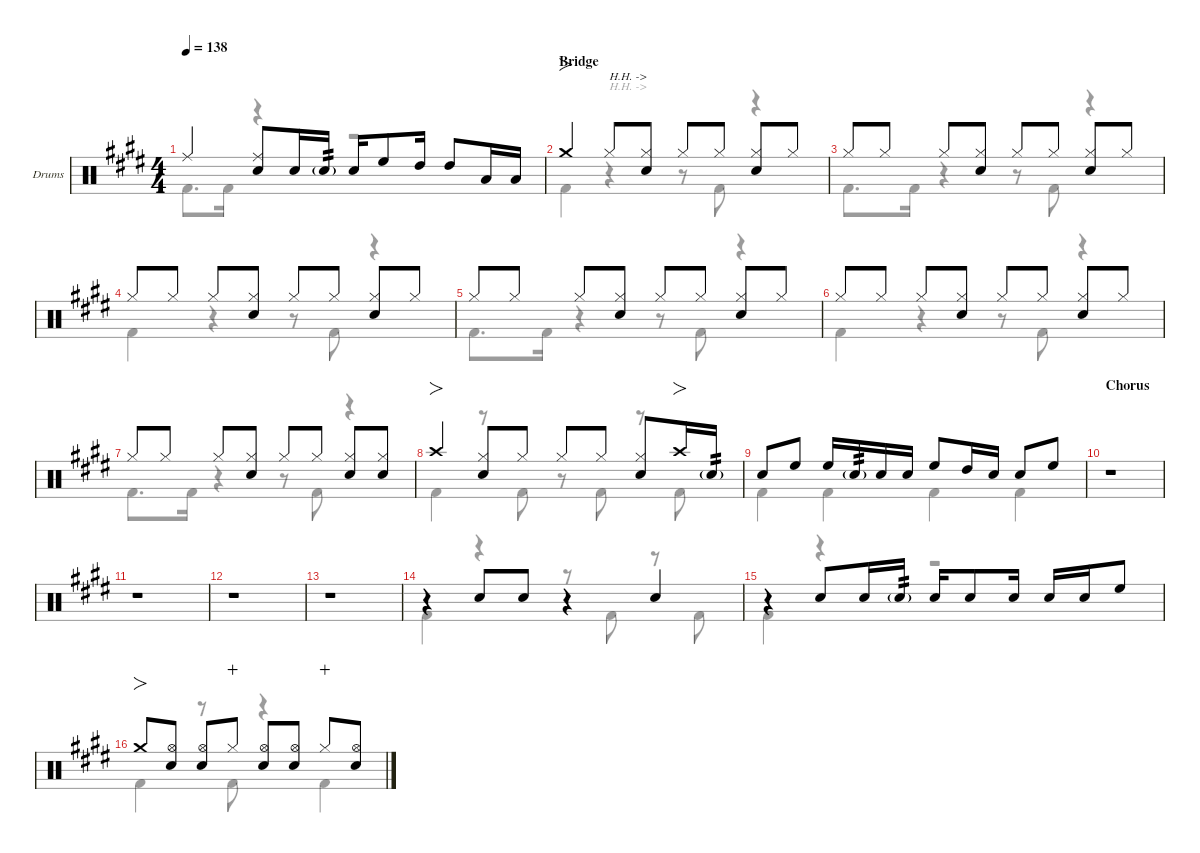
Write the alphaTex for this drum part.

\defaultSystemsLayout 4
\hideDynamics
\bracketExtendMode nobrackets
\firstSystemTrackNameOrientation horizontal
\track ("Drums" "Drums") {defaultSystemsLayout 4 instrument percussion}
\staff {score}
\articulation defaults
\voice
\ts (4 4)
\tempo 138
\clef neutral
\scale
0.244132
\ks c#minor "Ride (middle)"{acc forcenatural}.4{dy f beam Up}
("Ride (middle)"{acc forcenatural} "Snare (hit) 2"{acc forcenatural}).8{beam Up} "Snare (hit) 2"{acc forcenatural}.16{beam Up} "Snare (hit) 2"{g acc forcenatural}.16{tp 2 dy mp beam Up} "Snare (hit) 2"{acc forcenatural}.16{dy f beam Up} "High Floor Tom (hit)"{acc forcenatural}.8{dy mf beam Up} "High Tom (hit)"{acc forcenatural}.16{beam Up beam split} "High Tom (hit)"{acc forcenatural}.8{beam Up} "Low Tom (hit)"{acc forcenatural}.16{beam Up} "Low Tom (hit)"{acc forcenatural}.16{beam Up} |
\section ("" "Bridge")
\scale
0.267605 "Crash medium (hit)"{acc forcenatural}.4{fo dy f beam Up} "Hi-Hat (closed)"{acc forcenatural}.8{txt "H.H. ->" beam Up} ("Hi-Hat (closed)"{acc forcenatural} "Snare (hit) 2"{acc forcenatural}).8{beam Up} "Hi-Hat (closed)"{acc forcenatural}.8{beam Up} "Hi-Hat (closed)"{acc forcenatural}.8{dy mp beam Up} ("Hi-Hat (closed)"{acc forcenatural} "Snare (hit) 2"{acc forcenatural}).8{dy f beam Up} "Hi-Hat (closed)"{acc forcenatural}.8{dy mp beam Up} |
\scale
0.244132 "Hi-Hat (closed)"{acc forcenatural}.8{dy f beam Up} "Hi-Hat (closed)"{acc forcenatural}.8{dy mp beam Up} "Hi-Hat (closed)"{acc forcenatural}.8{dy f beam Up} ("Hi-Hat (closed)"{acc forcenatural} "Snare (hit) 2"{acc forcenatural}).8{beam Up} "Hi-Hat (closed)"{acc forcenatural}.8{beam Up} "Hi-Hat (closed)"{acc forcenatural}.8{dy mp beam Up} ("Hi-Hat (closed)"{acc forcenatural} "Snare (hit) 2"{acc forcenatural}).8{dy f beam Up} "Hi-Hat (closed)"{acc forcenatural}.8{dy mp beam Up} |
\scale
0.244132 "Hi-Hat (closed)"{acc forcenatural}.8{dy f beam Up} "Hi-Hat (closed)"{acc forcenatural}.8{dy mp beam Up} "Hi-Hat (closed)"{acc forcenatural}.8{dy f beam Up} ("Hi-Hat (closed)"{acc forcenatural} "Snare (hit) 2"{acc forcenatural}).8{beam Up} "Hi-Hat (closed)"{acc forcenatural}.8{beam Up} "Hi-Hat (closed)"{acc forcenatural}.8{dy mp beam Up} ("Hi-Hat (closed)"{acc forcenatural} "Snare (hit) 2"{acc forcenatural}).8{dy f beam Up} "Hi-Hat (closed)"{acc forcenatural}.8{dy mp beam Up} |
\scale
0.244132 "Hi-Hat (closed)"{acc forcenatural}.8{dy f beam Up} "Hi-Hat (closed)"{acc forcenatural}.8{dy mp beam Up} "Hi-Hat (closed)"{acc forcenatural}.8{dy f beam Up} ("Hi-Hat (closed)"{acc forcenatural} "Snare (hit) 2"{acc forcenatural}).8{beam Up} "Hi-Hat (closed)"{acc forcenatural}.8{beam Up} "Hi-Hat (closed)"{acc forcenatural}.8{dy mp beam Up} ("Hi-Hat (closed)"{acc forcenatural} "Snare (hit) 2"{acc forcenatural}).8{dy f beam Up} "Hi-Hat (closed)"{acc forcenatural}.8{dy mp beam Up} |
\scale
0.267605 "Hi-Hat (closed)"{acc forcenatural}.8{dy f beam Up} "Hi-Hat (closed)"{acc forcenatural}.8{dy mp beam Up} "Hi-Hat (closed)"{acc forcenatural}.8{dy f beam Up} ("Hi-Hat (closed)"{acc forcenatural} "Snare (hit) 2"{acc forcenatural}).8{beam Up} "Hi-Hat (closed)"{acc forcenatural}.8{beam Up} "Hi-Hat (closed)"{acc forcenatural}.8{dy mp beam Up} ("Hi-Hat (closed)"{acc forcenatural} "Snare (hit) 2"{acc forcenatural}).8{dy f beam Up} "Hi-Hat (closed)"{acc forcenatural}.8{dy mp beam Up} |
\scale
0.244132 "Hi-Hat (closed)"{acc forcenatural}.8{dy f beam Up} "Hi-Hat (closed)"{acc forcenatural}.8{dy mp beam Up} "Hi-Hat (closed)"{acc forcenatural}.8{dy f beam Up} ("Hi-Hat (closed)"{acc forcenatural} "Snare (hit) 2"{acc forcenatural}).8{beam Up} "Hi-Hat (closed)"{acc forcenatural}.8{beam Up} "Hi-Hat (closed)"{acc forcenatural}.8{dy mp beam Up} ("Hi-Hat (closed)"{acc forcenatural} "Snare (hit) 2"{acc forcenatural}).8{dy f beam Up} ("Hi-Hat (closed)"{acc forcenatural} "Snare (hit) 2"{acc forcenatural}).8{beam Up} |
\scale
0.244132 "Crash high (hit)"{acc forcenatural}.4{fo beam Up} ("Hi-Hat (closed)"{acc forcenatural} "Snare (hit) 2"{acc forcenatural}).8{beam Up} "Hi-Hat (closed)"{acc forcenatural}.8{dy mp beam Up} "Hi-Hat (closed)"{acc forcenatural}.8{dy f beam Up} "Hi-Hat (closed)"{acc forcenatural}.8{dy mp beam Up beam split} ("Hi-Hat (closed)"{acc forcenatural} "Snare (hit) 2"{acc forcenatural}).8{dy f beam Up} "Crash high (hit)"{acc forcenatural}.16{fo beam Up} "Snare (hit) 2"{g acc forcenatural}.16{tp 2 dy mp beam Up} |
\scale
0.244132 "Snare (hit) 2"{acc forcenatural}.8{dy f beam Up} "High Floor Tom (hit)"{acc forcenatural}.8{beam Up beam split} "High Floor Tom (hit)"{acc forcenatural}.16{beam Up} "Snare (hit) 2"{g acc forcenatural}.16{tp 2 dy mp beam Up} "Snare (hit) 2"{acc forcenatural}.16{dy f beam Up} "Snare (hit) 2"{acc forcenatural}.16{dy mf beam Up} "High Floor Tom (hit)"{acc forcenatural}.8{dy f beam Up} "High Tom (hit)"{acc forcenatural}.16{beam Up} "Snare (hit) 2"{acc forcenatural}.16{beam Up beam split} "Snare (hit) 2"{acc forcenatural}.8{dy mf beam Up} "High Floor Tom (hit)"{acc forcenatural}.8{beam Up} |
\section ("" "Chorus")
\scale
0.267605 r.1{beam Down} |
\scale
0.244132 r.1{beam Down} |
\scale
0.244132 r.1{beam Down} |
\scale
0.244132 r.1{beam Down} |
\scale
0.267605 r.4{beam Up} "Snare (hit) 2"{acc forcenatural}.8{dy f beam Up} "Snare (hit) 2"{acc forcenatural}.8{beam Up} r.4{beam Up} "Snare (hit) 2"{acc forcenatural}.4{beam Up} |
\scale
0.244132 r.4{beam Up} "Snare (hit) 2"{acc forcenatural}.8{beam Up} "Snare (hit) 2"{acc forcenatural}.16{beam Up} "Snare (hit) 2"{g acc forcenatural}.16{tp 2 dy mf beam Up} "Snare (hit) 2"{acc forcenatural}.16{dy f beam Up} "Snare (hit) 2"{acc forcenatural}.8{beam Up} "Snare (hit) 2"{acc forcenatural}.16{dy mf beam Up beam split} "Snare (hit) 2"{acc forcenatural}.16{dy f beam Up} "Snare (hit) 2"{acc forcenatural}.16{dy mf beam Up} "High Floor Tom (hit)"{acc forcenatural}.8{dy f beam Up} |
\scale
0.244132 "Crash medium (hit)"{acc forcenatural}.8{fo beam Up} ("Snare (hit) 2"{acc forcenatural} "Hi-Hat (open)"{acc forcenatural}).8{beam Up} ("Snare (hit) 2"{acc forcenatural} "Hi-Hat (open)"{acc forcenatural}).8{beam Up} "Hi-Hat (closed)"{acc forcenatural}.8{dy mp wahc beam Up} ("Snare (hit) 2"{acc forcenatural} "Hi-Hat (open)"{acc forcenatural}).8{dy f beam Up} ("Snare (hit) 2"{acc forcenatural} "Hi-Hat (open)"{acc forcenatural}).8{beam Up} "Hi-Hat (closed)"{acc forcenatural}.8{dy mp wahc beam Up} ("Snare (hit) 2"{acc forcenatural} "Hi-Hat (open)"{acc forcenatural}).8{dy f beam Up}
\voice
\clef neutral
\ottava regular
\simile none
\scale
0.244132
\ks c#minor "Kick (hit) 2"{acc forcenatural}.8{d dy f beam Down} "Kick (hit) 2"{acc forcenatural}.16{beam Down}
r.4{beam Down} r.2{beam Down} |
\scale
0.267605 "Kick (hit) 2"{acc forcenatural}.4{beam Down} r.4{txt "H.H. ->" beam Down} r.8{beam Down} "Kick (hit) 2"{acc forcenatural}.8{beam Down} r.4{beam Down} |
\scale
0.244132 "Kick (hit) 2"{acc forcenatural}.8{d beam Down} "Kick (hit) 2"{acc forcenatural}.16{beam Down} r.4{beam Down} r.8{beam Down} "Kick (hit) 2"{acc forcenatural}.8{beam Down} r.4{beam Down} |
\scale
0.244132 "Kick (hit) 2"{acc forcenatural}.4{beam Down} r.4{beam Down} r.8{beam Down} "Kick (hit) 2"{acc forcenatural}.8{beam Down} r.4{beam Down} |
\scale
0.244132 "Kick (hit) 2"{acc forcenatural}.8{d beam Down} "Kick (hit) 2"{acc forcenatural}.16{beam Down} r.4{beam Down} r.8{beam Down} "Kick (hit) 2"{acc forcenatural}.8{beam Down} r.4{beam Down} |
\scale
0.267605 "Kick (hit) 2"{acc forcenatural}.4{beam Down} r.4{beam Down} r.8{beam Down} "Kick (hit) 2"{acc forcenatural}.8{beam Down} r.4{beam Down} |
\scale
0.244132 "Kick (hit) 2"{acc forcenatural}.8{d beam Down} "Kick (hit) 2"{acc forcenatural}.16{beam Down} r.4{beam Down} r.8{beam Down} "Kick (hit) 2"{acc forcenatural}.8{beam Down} r.4{beam Down} |
\scale
0.244132 "Kick (hit) 2"{acc forcenatural}.4{beam Down} r.8{beam Down} "Kick (hit) 2"{acc forcenatural}.8{beam Down} r.8{beam Down} "Kick (hit) 2"{acc forcenatural}.8{beam Down} r.8{beam Down} "Kick (hit) 2"{acc forcenatural}.8{beam Down} |
\scale
0.244132 "Kick (hit) 2"{acc forcenatural}.4{beam Down} "Kick (hit) 2"{acc forcenatural}.4{beam Down} "Kick (hit) 2"{acc forcenatural}.4{beam Down} "Kick (hit) 2"{acc forcenatural}.4{beam Down} |
\scale
0.267605 |
\scale
0.244132 |
\scale
0.244132 |
\scale
0.244132 |
\scale
0.267605 "Kick (hit) 2"{acc forcenatural}.4{beam Down} r.4{beam Down} r.8{beam Down} "Kick (hit) 2"{acc forcenatural}.8{beam Down} r.8{beam Down} "Kick (hit) 2"{acc forcenatural}.8{beam Down} |
\scale
0.244132 "Kick (hit) 2"{acc forcenatural}.4{beam Down} r.4{beam Down} r.2{beam Down} |
\scale
0.244132 "Kick (hit) 2"{acc forcenatural}.4{beam Down} r.8{beam Down} "Kick (hit) 2"{acc forcenatural}.8{beam Down} r.4{beam Down} "Kick (hit) 2"{acc forcenatural}.4{beam Down}
